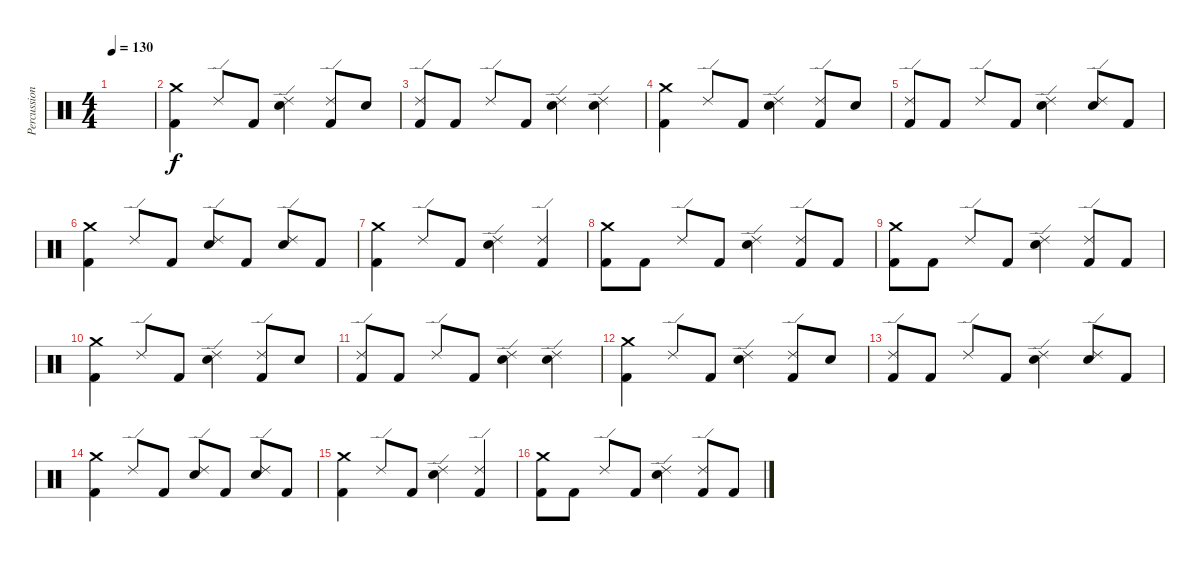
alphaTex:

\track ("Percussion" "Percussion") {instrument percussion}
\staff {score}
\articulation defaults
\ts (4 4)
\tempo 130
\clef neutral
\ks c
|
("Crash medium (hit)" "Kick (hit) 2").4 "Ride (edge) 2".8 "Kick (hit) 2".8 ("Ride (edge) 2" "Electric Snare (hit)").4 ("Kick (hit) 2" "Ride (edge) 2").8 "Electric Snare (hit)".8 |
("Kick (hit) 2" "Ride (edge) 2").8 "Kick (hit) 2".8 "Ride (edge) 2".8 "Kick (hit) 2".8 ("Electric Snare (hit)" "Ride (edge) 2").4 ("Electric Snare (hit)" "Ride (edge) 2").4 |
("Crash medium (hit)" "Kick (hit) 2").4 "Ride (edge) 2".8 "Kick (hit) 2".8 ("Ride (edge) 2" "Electric Snare (hit)").4 ("Kick (hit) 2" "Ride (edge) 2").8 "Electric Snare (hit)".8 |
("Kick (hit) 2" "Ride (edge) 2").8 "Kick (hit) 2".8 "Ride (edge) 2".8 "Kick (hit) 2".8 ("Electric Snare (hit)" "Ride (edge) 2").4 ("Electric Snare (hit)" "Ride (edge) 2").8 "Kick (hit) 2".8 |
("Crash medium (hit)" "Kick (hit) 2").4 "Ride (edge) 2".8 "Kick (hit) 2".8 ("Ride (edge) 2" "Electric Snare (hit)").8 "Kick (hit) 2".8 ("Ride (edge) 2" "Electric Snare (hit)").8 "Kick (hit) 2".8 |
("Crash medium (hit)" "Kick (hit) 2").4 "Ride (edge) 2".8 "Kick (hit) 2".8 ("Ride (edge) 2" "Electric Snare (hit)").4 ("Ride (edge) 2" "Kick (hit) 2").4 |
("Crash medium (hit)" "Kick (hit) 2").8 "Kick (hit) 2".8 "Ride (edge) 2".8 "Kick (hit) 2".8 ("Ride (edge) 2" "Electric Snare (hit)").4 ("Ride (edge) 2" "Kick (hit) 2").8 "Kick (hit) 2".8 |
("Crash medium (hit)" "Kick (hit) 2").8 "Kick (hit) 2".8 "Ride (edge) 2".8 "Kick (hit) 2".8 ("Ride (edge) 2" "Electric Snare (hit)").4 ("Ride (edge) 2" "Kick (hit) 2").8 "Kick (hit) 2".8 |
("Crash medium (hit)" "Kick (hit) 2").4 "Ride (edge) 2".8 "Kick (hit) 2".8 ("Ride (edge) 2" "Electric Snare (hit)").4 ("Kick (hit) 2" "Ride (edge) 2").8 "Electric Snare (hit)".8 |
("Kick (hit) 2" "Ride (edge) 2").8 "Kick (hit) 2".8 "Ride (edge) 2".8 "Kick (hit) 2".8 ("Electric Snare (hit)" "Ride (edge) 2").4 ("Electric Snare (hit)" "Ride (edge) 2").4 |
("Crash medium (hit)" "Kick (hit) 2").4 "Ride (edge) 2".8 "Kick (hit) 2".8 ("Ride (edge) 2" "Electric Snare (hit)").4 ("Kick (hit) 2" "Ride (edge) 2").8 "Electric Snare (hit)".8 |
("Kick (hit) 2" "Ride (edge) 2").8 "Kick (hit) 2".8 "Ride (edge) 2".8 "Kick (hit) 2".8 ("Electric Snare (hit)" "Ride (edge) 2").4 ("Electric Snare (hit)" "Ride (edge) 2").8 "Kick (hit) 2".8 |
("Crash medium (hit)" "Kick (hit) 2").4 "Ride (edge) 2".8 "Kick (hit) 2".8 ("Ride (edge) 2" "Electric Snare (hit)").8 "Kick (hit) 2".8 ("Ride (edge) 2" "Electric Snare (hit)").8 "Kick (hit) 2".8 |
("Crash medium (hit)" "Kick (hit) 2").4 "Ride (edge) 2".8 "Kick (hit) 2".8 ("Ride (edge) 2" "Electric Snare (hit)").4 ("Ride (edge) 2" "Kick (hit) 2").4 |
("Crash medium (hit)" "Kick (hit) 2").8 "Kick (hit) 2".8 "Ride (edge) 2".8 "Kick (hit) 2".8 ("Ride (edge) 2" "Electric Snare (hit)").4 ("Ride (edge) 2" "Kick (hit) 2").8 "Kick (hit) 2".8
